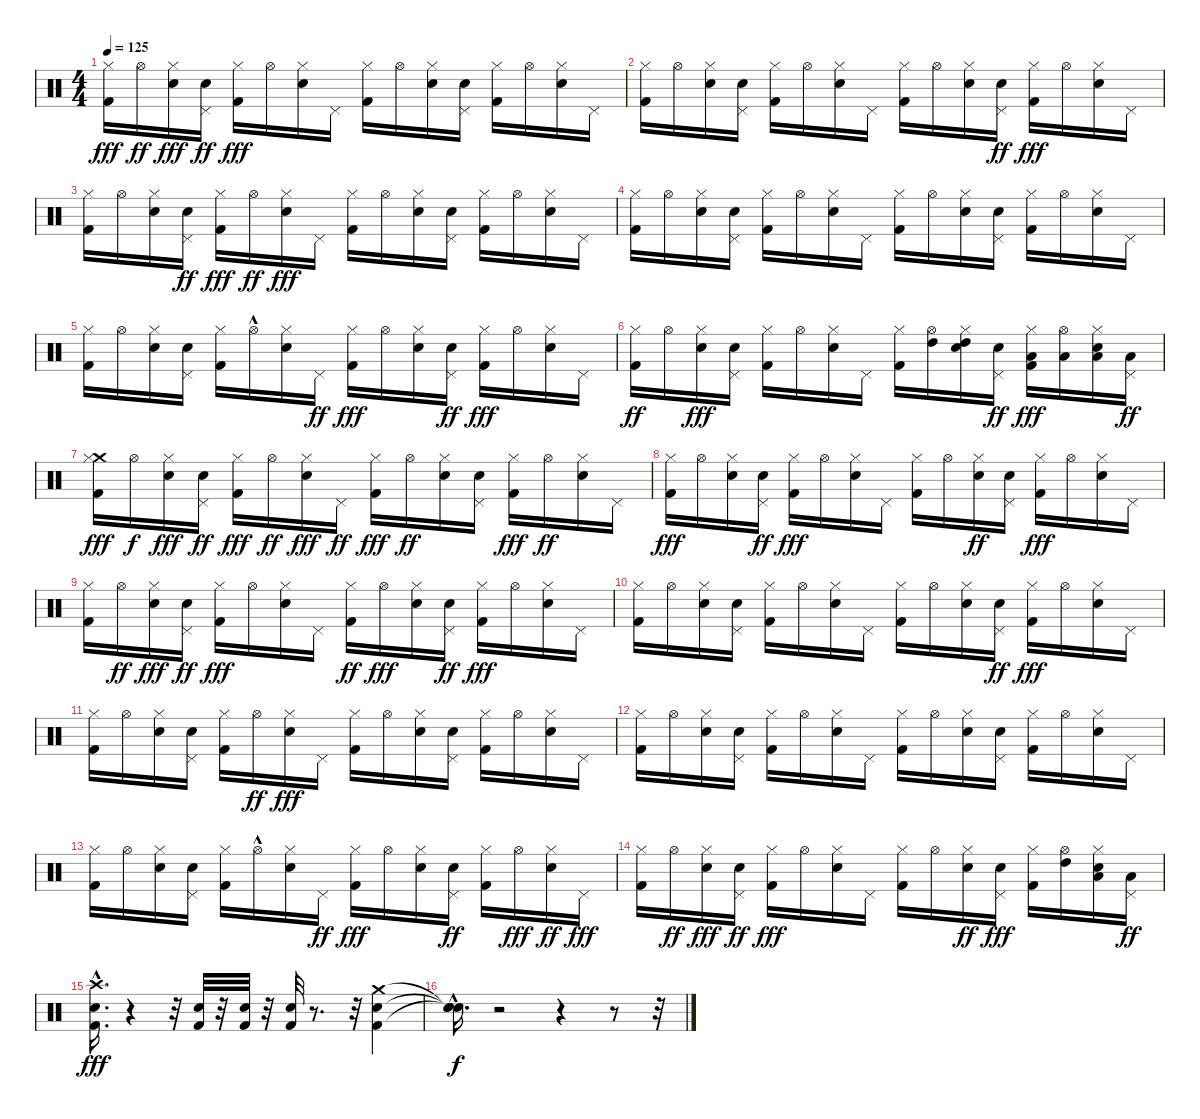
\track "" {instrument percussion}
\staff {score}
\articulation defaults
\ts (4 4)
\tempo 125
\clef neutral
\ks c
("Kick (hit) 2" "Hi-Hat (closed)").16{dy fff} "Hi-Hat (open)".16{dy ff} ("Hi-Hat (closed)" "Electric Snare (hit)").16{dy fff} ("Pedal Hi-Hat (hit)" "Electric Snare (hit)").16{dy ff} ("Hi-Hat (closed)" "Kick (hit) 2").16{dy fff} "Hi-Hat (open)".16 ("Hi-Hat (closed)" "Electric Snare (hit)").16 "Pedal Hi-Hat (hit)".16 ("Kick (hit) 2" "Hi-Hat (closed)").16 "Hi-Hat (open)".16 ("Hi-Hat (closed)" "Electric Snare (hit)").16 ("Electric Snare (hit)" "Pedal Hi-Hat (hit)").16 ("Hi-Hat (closed)" "Kick (hit) 2").16 "Hi-Hat (open)".16 ("Hi-Hat (closed)" "Electric Snare (hit)").16 "Pedal Hi-Hat (hit)".16 |
("Kick (hit) 2" "Hi-Hat (closed)").16 "Hi-Hat (open)".16 ("Electric Snare (hit)" "Hi-Hat (closed)").16 ("Electric Snare (hit)" "Pedal Hi-Hat (hit)").16 ("Hi-Hat (closed)" "Kick (hit) 2").16 "Hi-Hat (open)".16 ("Hi-Hat (closed)" "Electric Snare (hit)").16 "Pedal Hi-Hat (hit)".16 ("Kick (hit) 2" "Hi-Hat (closed)").16 "Hi-Hat (open)".16 ("Electric Snare (hit)" "Hi-Hat (closed)").16 ("Pedal Hi-Hat (hit)" "Electric Snare (hit)").16{dy ff} ("Hi-Hat (closed)" "Kick (hit) 2").16{dy fff} "Hi-Hat (open)".16 ("Electric Snare (hit)" "Hi-Hat (closed)").16 "Pedal Hi-Hat (hit)".16 |
("Kick (hit) 2" "Hi-Hat (closed)").16 "Hi-Hat (open)".16 ("Hi-Hat (closed)" "Electric Snare (hit)").16 ("Pedal Hi-Hat (hit)" "Electric Snare (hit)").16{dy ff} ("Kick (hit) 2" "Hi-Hat (closed)").16{dy fff} "Hi-Hat (open)".16{dy ff} ("Electric Snare (hit)" "Hi-Hat (closed)").16{dy fff} "Pedal Hi-Hat (hit)".16 ("Kick (hit) 2" "Hi-Hat (closed)").16 "Hi-Hat (open)".16 ("Hi-Hat (closed)" "Electric Snare (hit)").16 ("Electric Snare (hit)" "Pedal Hi-Hat (hit)").16 ("Hi-Hat (closed)" "Kick (hit) 2").16 "Hi-Hat (open)".16 ("Hi-Hat (closed)" "Electric Snare (hit)").16 "Pedal Hi-Hat (hit)".16 |
("Hi-Hat (closed)" "Kick (hit) 2").16 "Hi-Hat (open)".16 ("Electric Snare (hit)" "Hi-Hat (closed)").16 ("Electric Snare (hit)" "Pedal Hi-Hat (hit)").16 ("Hi-Hat (closed)" "Kick (hit) 2").16 "Hi-Hat (open)".16 ("Electric Snare (hit)" "Hi-Hat (closed)").16 "Pedal Hi-Hat (hit)".16 ("Hi-Hat (closed)" "Kick (hit) 2").16 "Hi-Hat (open)".16 ("Hi-Hat (closed)" "Electric Snare (hit)").16 ("Pedal Hi-Hat (hit)" "Electric Snare (hit)").16 ("Kick (hit) 2" "Hi-Hat (closed)").16 "Hi-Hat (open)".16 ("Electric Snare (hit)" "Hi-Hat (closed)").16 "Pedal Hi-Hat (hit)".16 |
("Hi-Hat (closed)" "Kick (hit) 2").16 "Hi-Hat (open)".16 ("Electric Snare (hit)" "Hi-Hat (closed)").16 ("Electric Snare (hit)" "Pedal Hi-Hat (hit)").16 ("Kick (hit) 2" "Hi-Hat (closed)").16 "Hi-Hat (open)"{hac}.16 ("Hi-Hat (closed)" "Electric Snare (hit)").16 "Pedal Hi-Hat (hit)".16{dy ff} ("Kick (hit) 2" "Hi-Hat (closed)").16{dy fff} "Hi-Hat (open)".16 ("Electric Snare (hit)" "Hi-Hat (closed)").16 ("Pedal Hi-Hat (hit)" "Electric Snare (hit)").16{dy ff} ("Hi-Hat (closed)" "Kick (hit) 2").16{dy fff} "Hi-Hat (open)".16 ("Hi-Hat (closed)" "Electric Snare (hit)").16 "Pedal Hi-Hat (hit)".16 |
("Kick (hit) 2" "Hi-Hat (closed)").16{dy ff} "Hi-Hat (open)".16 ("Hi-Hat (closed)" "Electric Snare (hit)").16{dy fff} ("Electric Snare (hit)" "Pedal Hi-Hat (hit)").16 ("Kick (hit) 2" "Hi-Hat (closed)").16 "Hi-Hat (open)".16 ("Hi-Hat (closed)" "Electric Snare (hit)").16 "Pedal Hi-Hat (hit)".16 ("Hi-Hat (closed)" "Kick (hit) 2").16 ("Hi-Hat (open)" "High Tom (hit)").16 ("High Tom (hit)" "Hi-Hat (closed)" "Electric Snare (hit)").16 ("Pedal Hi-Hat (hit)" "Electric Snare (hit)").16{dy ff} ("Low Tom (hit)" "Hi-Hat (closed)" "Kick (hit) 2").16{dy fff} ("Hi-Hat (open)" "Low Tom (hit)").16 ("Low Floor Tom (hit)" "Electric Snare (hit)" "Hi-Hat (closed)").16 ("Low Floor Tom (hit)" "Pedal Hi-Hat (hit)").16{dy ff} |
("Crash medium (hit)" "Hi-Hat (closed)" "Kick (hit) 2").16{dy fff} "Hi-Hat (open)".16{dy f} ("Electric Snare (hit)" "Hi-Hat (closed)").16{dy fff} ("Electric Snare (hit)" "Pedal Hi-Hat (hit)").16{dy ff} ("Kick (hit) 2" "Hi-Hat (closed)").16{dy fff} "Hi-Hat (open)".16{dy ff} ("Electric Snare (hit)" "Hi-Hat (closed)").16{dy fff} "Pedal Hi-Hat (hit)".16{dy ff} ("Kick (hit) 2" "Hi-Hat (closed)").16{dy fff} "Hi-Hat (open)".16{dy ff} ("Hi-Hat (closed)" "Electric Snare (hit)").16 ("Pedal Hi-Hat (hit)" "Electric Snare (hit)").16 ("Hi-Hat (closed)" "Kick (hit) 2").16{dy fff} "Hi-Hat (open)".16{dy ff} ("Hi-Hat (closed)" "Electric Snare (hit)").16 "Pedal Hi-Hat (hit)".16 |
("Hi-Hat (closed)" "Kick (hit) 2").16{dy fff} "Hi-Hat (open)".16 ("Electric Snare (hit)" "Hi-Hat (closed)").16 ("Pedal Hi-Hat (hit)" "Electric Snare (hit)").16{dy ff} ("Kick (hit) 2" "Hi-Hat (closed)").16{dy fff} "Hi-Hat (open)".16 ("Electric Snare (hit)" "Hi-Hat (closed)").16 "Pedal Hi-Hat (hit)".16 ("Kick (hit) 2" "Hi-Hat (closed)").16 "Hi-Hat (open)".16 ("Hi-Hat (closed)" "Electric Snare (hit)").16{dy ff} ("Pedal Hi-Hat (hit)" "Electric Snare (hit)").16 ("Kick (hit) 2" "Hi-Hat (closed)").16{dy fff} "Hi-Hat (open)".16 ("Electric Snare (hit)" "Hi-Hat (closed)").16 "Pedal Hi-Hat (hit)".16 |
("Hi-Hat (closed)" "Kick (hit) 2").16 "Hi-Hat (open)".16{dy ff} ("Electric Snare (hit)" "Hi-Hat (closed)").16{dy fff} ("Pedal Hi-Hat (hit)" "Electric Snare (hit)").16{dy ff} ("Kick (hit) 2" "Hi-Hat (closed)").16{dy fff} "Hi-Hat (open)".16 ("Hi-Hat (closed)" "Electric Snare (hit)").16 "Pedal Hi-Hat (hit)".16 ("Hi-Hat (closed)" "Kick (hit) 2").16{dy ff} "Hi-Hat (open)".16{dy fff} ("Hi-Hat (closed)" "Electric Snare (hit)").16 ("Pedal Hi-Hat (hit)" "Electric Snare (hit)").16{dy ff} ("Hi-Hat (closed)" "Kick (hit) 2").16{dy fff} "Hi-Hat (open)".16 ("Electric Snare (hit)" "Hi-Hat (closed)").16 "Pedal Hi-Hat (hit)".16 |
("Hi-Hat (closed)" "Kick (hit) 2").16 "Hi-Hat (open)".16 ("Electric Snare (hit)" "Hi-Hat (closed)").16 ("Electric Snare (hit)" "Pedal Hi-Hat (hit)").16 ("Hi-Hat (closed)" "Kick (hit) 2").16 "Hi-Hat (open)".16 ("Electric Snare (hit)" "Hi-Hat (closed)").16 "Pedal Hi-Hat (hit)".16 ("Kick (hit) 2" "Hi-Hat (closed)").16 "Hi-Hat (open)".16 ("Hi-Hat (closed)" "Electric Snare (hit)").16 ("Pedal Hi-Hat (hit)" "Electric Snare (hit)").16{dy ff} ("Kick (hit) 2" "Hi-Hat (closed)").16{dy fff} "Hi-Hat (open)".16 ("Hi-Hat (closed)" "Electric Snare (hit)").16 "Pedal Hi-Hat (hit)".16 |
("Kick (hit) 2" "Hi-Hat (closed)").16 "Hi-Hat (open)".16 ("Electric Snare (hit)" "Hi-Hat (closed)").16 ("Electric Snare (hit)" "Pedal Hi-Hat (hit)").16 ("Kick (hit) 2" "Hi-Hat (closed)").16 "Hi-Hat (open)".16{dy ff} ("Electric Snare (hit)" "Hi-Hat (closed)").16{dy fff} "Pedal Hi-Hat (hit)".16 ("Kick (hit) 2" "Hi-Hat (closed)").16 "Hi-Hat (open)".16 ("Electric Snare (hit)" "Hi-Hat (closed)").16 ("Electric Snare (hit)" "Pedal Hi-Hat (hit)").16 ("Kick (hit) 2" "Hi-Hat (closed)").16 "Hi-Hat (open)".16 ("Hi-Hat (closed)" "Electric Snare (hit)").16 "Pedal Hi-Hat (hit)".16 |
("Kick (hit) 2" "Hi-Hat (closed)").16 "Hi-Hat (open)".16 ("Electric Snare (hit)" "Hi-Hat (closed)").16 ("Electric Snare (hit)" "Pedal Hi-Hat (hit)").16 ("Hi-Hat (closed)" "Kick (hit) 2").16 "Hi-Hat (open)".16 ("Hi-Hat (closed)" "Electric Snare (hit)").16 "Pedal Hi-Hat (hit)".16 ("Hi-Hat (closed)" "Kick (hit) 2").16 "Hi-Hat (open)".16 ("Hi-Hat (closed)" "Electric Snare (hit)").16 ("Electric Snare (hit)" "Pedal Hi-Hat (hit)").16 ("Hi-Hat (closed)" "Kick (hit) 2").16 "Hi-Hat (open)".16 ("Electric Snare (hit)" "Hi-Hat (closed)").16 "Pedal Hi-Hat (hit)".16 |
("Hi-Hat (closed)" "Kick (hit) 2").16 "Hi-Hat (open)".16 ("Electric Snare (hit)" "Hi-Hat (closed)").16 ("Electric Snare (hit)" "Pedal Hi-Hat (hit)").16 ("Hi-Hat (closed)" "Kick (hit) 2").16 "Hi-Hat (open)"{hac}.16 ("Electric Snare (hit)" "Hi-Hat (closed)").16 "Pedal Hi-Hat (hit)".16{dy ff} ("Kick (hit) 2" "Hi-Hat (closed)").16{dy fff} "Hi-Hat (open)".16 ("Electric Snare (hit)" "Hi-Hat (closed)").16 ("Pedal Hi-Hat (hit)" "Electric Snare (hit)").16{dy ff} ("Kick (hit) 2" "Hi-Hat (closed)").16 "Hi-Hat (open)".16{dy fff} ("Electric Snare (hit)" "Hi-Hat (closed)").16{dy ff} "Pedal Hi-Hat (hit)".16{dy fff} |
("Hi-Hat (closed)" "Kick (hit) 2").16 "Hi-Hat (open)".16{dy ff} ("Hi-Hat (closed)" "Electric Snare (hit)").16{dy fff} ("Pedal Hi-Hat (hit)" "Electric Snare (hit)").16{dy ff} ("Kick (hit) 2" "Hi-Hat (closed)").16{dy fff} "Hi-Hat (open)".16 ("Electric Snare (hit)" "Hi-Hat (closed)").16 "Pedal Hi-Hat (hit)".16 ("Hi-Hat (closed)" "Kick (hit) 2").16 "Hi-Hat (open)".16 ("Electric Snare (hit)" "Hi-Hat (closed)").16{dy ff} ("Electric Snare (hit)" "Pedal Hi-Hat (hit)").16{dy fff} ("Hi-Hat (closed)" "Kick (hit) 2").16 ("Hi-Hat (open)" "High Tom (hit)").16 ("Electric Snare (hit)" "Low Tom (hit)" "Hi-Hat (closed)").16 ("Low Floor Tom (hit)" "Pedal Hi-Hat (hit)").16{dy ff} |
("Kick (hit) 2" "Crash high (hit)"{hac} "Electric Snare (hit)").16{d dy fff} r.4 r.32 ("Kick (hit) 2" "Electric Snare (hit)").32 r.32 ("Electric Snare (hit)" "Kick (hit) 2").32 r.32 ("Kick (hit) 2" "Electric Snare (hit)").32 r.8{d} r.32 ("Crash medium (hit)" "Electric Snare (hit)" "Kick (hit) 2").4 |
("Snare (hit)"{hac t} "Snare (hit)"{hac t} "Snare (hit)"{hac t}).16{d dy f} r.2 r.4 r.8 r.32
